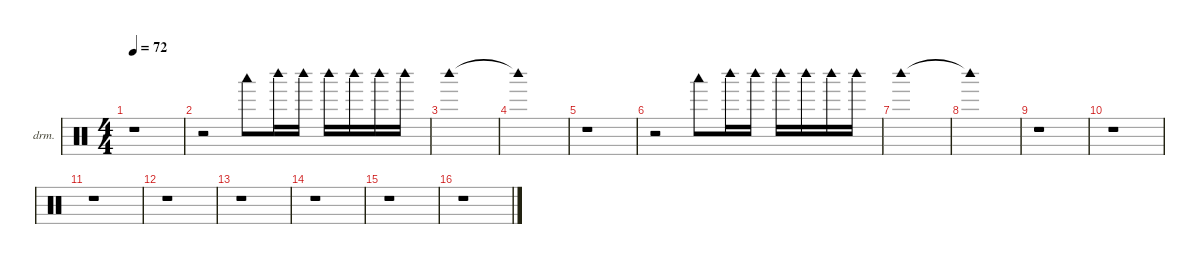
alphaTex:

\hideDynamics
\bracketExtendMode nobrackets
\firstSystemTrackNameOrientation horizontal
\otherSystemsTrackNameOrientation horizontal
\track ("Drumkit" "drm.") {instrument percussion}
\staff {score}
\articulation defaults
\ts (4 4)
\tempo 72
\clef neutral
\ks aminor
r.1{dy mf} |
r.2 "Woodblock low (hit)".8 "Woodblock high (hit)".16 "Woodblock high (hit)".16 "Woodblock high (hit)".16 "Woodblock high (hit)".16 "Woodblock high (hit)".16 "Woodblock high (hit)".16 |
"Woodblock high (hit)".1 |
"Woodblock high (hit)"{t}.1 |
r.1 |
r.2 "Woodblock low (hit)".8 "Woodblock high (hit)".16 "Woodblock high (hit)".16 "Woodblock high (hit)".16 "Woodblock high (hit)".16 "Woodblock high (hit)".16 "Woodblock high (hit)".16 |
"Woodblock high (hit)".1 |
"Woodblock high (hit)"{t}.1 |
r.1 |
r.1 |
r.1 |
r.1 |
r.1 |
r.1 |
r.1 |
r.1
